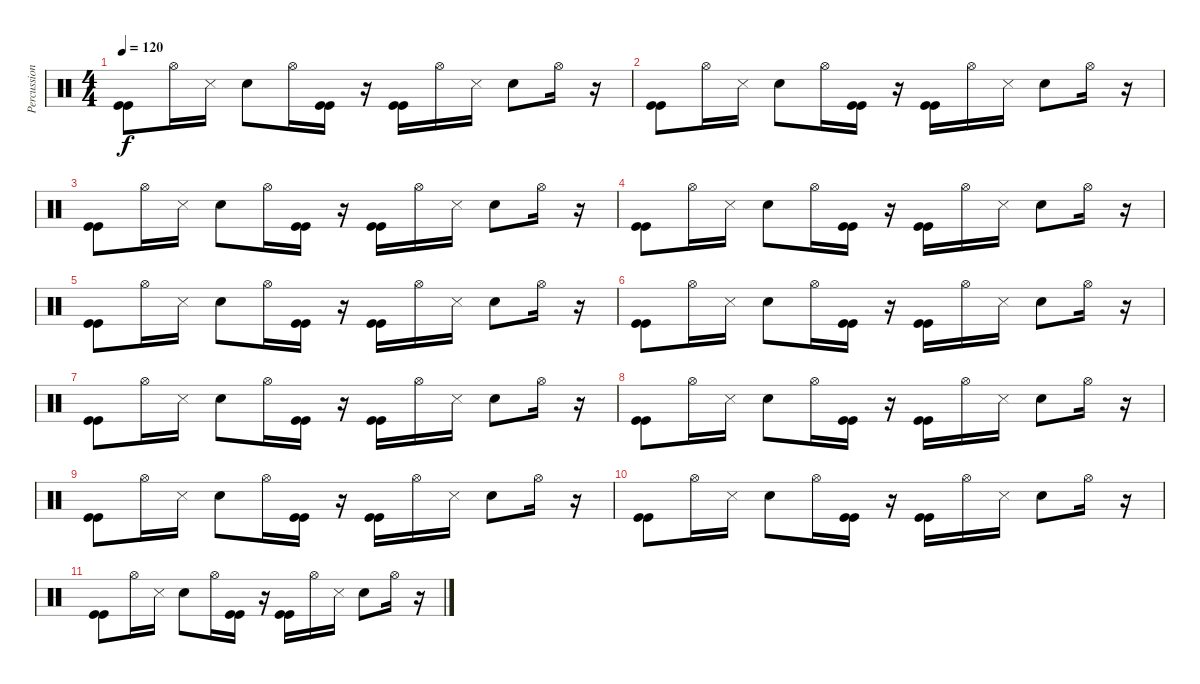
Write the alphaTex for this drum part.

\track ("Percussions" "Percussion") {instrument percussion}
\staff {score}
\articulation defaults
\ts (4 4)
\tempo 120
\clef neutral
\ks c
("Kick (hit)" "Kick (hit)").8{dy f} "Hi-Hat (open)".16 "Snare (side stick) 3".16 "Electric Snare (hit)".8 "Hi-Hat (open)".16 ("Kick (hit)" "Kick (hit)").16 r.16 ("Kick (hit)" "Kick (hit)").16 "Hi-Hat (open)".16 "Snare (side stick) 3".16 "Electric Snare (hit)".8 "Hi-Hat (open)".16 r.16 |
("Kick (hit)" "Kick (hit)").8 "Hi-Hat (open)".16 "Snare (side stick) 3".16 "Electric Snare (hit)".8 "Hi-Hat (open)".16 ("Kick (hit)" "Kick (hit)").16 r.16 ("Kick (hit)" "Kick (hit)").16 "Hi-Hat (open)".16 "Snare (side stick) 3".16 "Electric Snare (hit)".8 "Hi-Hat (open)".16 r.16 |
("Kick (hit)" "Kick (hit)").8 "Hi-Hat (open)".16 "Snare (side stick) 3".16 "Electric Snare (hit)".8 "Hi-Hat (open)".16 ("Kick (hit)" "Kick (hit)").16 r.16 ("Kick (hit)" "Kick (hit)").16 "Hi-Hat (open)".16 "Snare (side stick) 3".16 "Electric Snare (hit)".8 "Hi-Hat (open)".16 r.16 |
("Kick (hit)" "Kick (hit)").8 "Hi-Hat (open)".16 "Snare (side stick) 3".16 "Electric Snare (hit)".8 "Hi-Hat (open)".16 ("Kick (hit)" "Kick (hit)").16 r.16 ("Kick (hit)" "Kick (hit)").16 "Hi-Hat (open)".16 "Snare (side stick) 3".16 "Electric Snare (hit)".8 "Hi-Hat (open)".16 r.16 |
("Kick (hit)" "Kick (hit)").8 "Hi-Hat (open)".16 "Snare (side stick) 3".16 "Electric Snare (hit)".8 "Hi-Hat (open)".16 ("Kick (hit)" "Kick (hit)").16 r.16 ("Kick (hit)" "Kick (hit)").16 "Hi-Hat (open)".16 "Snare (side stick) 3".16 "Electric Snare (hit)".8 "Hi-Hat (open)".16 r.16 |
("Kick (hit)" "Kick (hit)").8 "Hi-Hat (open)".16 "Snare (side stick) 3".16 "Electric Snare (hit)".8 "Hi-Hat (open)".16 ("Kick (hit)" "Kick (hit)").16 r.16 ("Kick (hit)" "Kick (hit)").16 "Hi-Hat (open)".16 "Snare (side stick) 3".16 "Electric Snare (hit)".8 "Hi-Hat (open)".16 r.16 |
("Kick (hit)" "Kick (hit)").8 "Hi-Hat (open)".16 "Snare (side stick) 3".16 "Electric Snare (hit)".8 "Hi-Hat (open)".16 ("Kick (hit)" "Kick (hit)").16 r.16 ("Kick (hit)" "Kick (hit)").16 "Hi-Hat (open)".16 "Snare (side stick) 3".16 "Electric Snare (hit)".8 "Hi-Hat (open)".16 r.16 |
("Kick (hit)" "Kick (hit)").8 "Hi-Hat (open)".16 "Snare (side stick) 3".16 "Electric Snare (hit)".8 "Hi-Hat (open)".16 ("Kick (hit)" "Kick (hit)").16 r.16 ("Kick (hit)" "Kick (hit)").16 "Hi-Hat (open)".16 "Snare (side stick) 3".16 "Electric Snare (hit)".8 "Hi-Hat (open)".16 r.16 |
("Kick (hit)" "Kick (hit)").8 "Hi-Hat (open)".16 "Snare (side stick) 3".16 "Electric Snare (hit)".8 "Hi-Hat (open)".16 ("Kick (hit)" "Kick (hit)").16 r.16 ("Kick (hit)" "Kick (hit)").16 "Hi-Hat (open)".16 "Snare (side stick) 3".16 "Electric Snare (hit)".8 "Hi-Hat (open)".16 r.16 |
("Kick (hit)" "Kick (hit)").8 "Hi-Hat (open)".16 "Snare (side stick) 3".16 "Electric Snare (hit)".8 "Hi-Hat (open)".16 ("Kick (hit)" "Kick (hit)").16 r.16 ("Kick (hit)" "Kick (hit)").16 "Hi-Hat (open)".16 "Snare (side stick) 3".16 "Electric Snare (hit)".8 "Hi-Hat (open)".16 r.16 |
("Kick (hit)" "Kick (hit)").8 "Hi-Hat (open)".16 "Snare (side stick) 3".16 "Electric Snare (hit)".8 "Hi-Hat (open)".16 ("Kick (hit)" "Kick (hit)").16 r.16 ("Kick (hit)" "Kick (hit)").16 "Hi-Hat (open)".16 "Snare (side stick) 3".16 "Electric Snare (hit)".8 "Hi-Hat (open)".16 r.16
